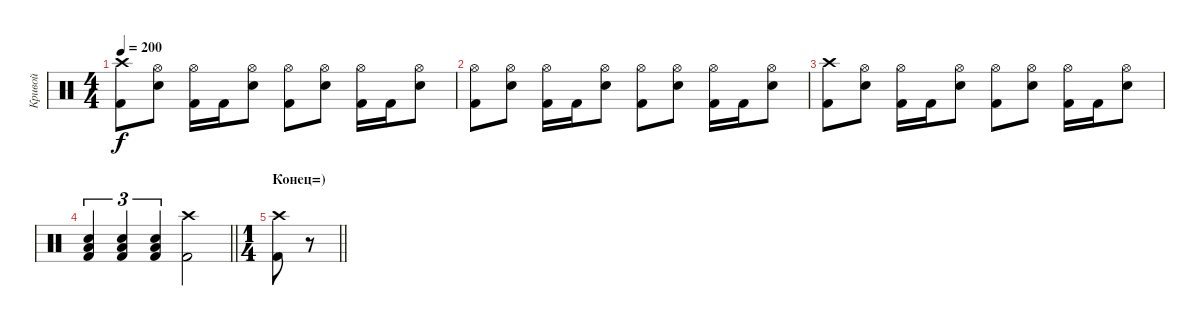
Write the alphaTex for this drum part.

\track ("Кривой" "Кривой") {instrument percussion}
\staff {score}
\articulation defaults
\ts (4 4)
\tempo 200
\clef neutral
\ks c
("Kick (hit) 2" "Crash high (hit)").8{dy f} ("Electric Snare (hit)" "Hi-Hat (open)").8 ("Kick (hit) 2" "Hi-Hat (open)").16 "Kick (hit) 2".16 ("Electric Snare (hit)" "Hi-Hat (open)").8 ("Kick (hit) 2" "Hi-Hat (open)").8 ("Electric Snare (hit)" "Hi-Hat (open)").8 ("Kick (hit) 2" "Hi-Hat (open)").16 "Kick (hit) 2".16 ("Electric Snare (hit)" "Hi-Hat (open)").8 |
("Kick (hit) 2" "Hi-Hat (open)").8 ("Electric Snare (hit)" "Hi-Hat (open)").8 ("Kick (hit) 2" "Hi-Hat (open)").16 "Kick (hit) 2".16 ("Electric Snare (hit)" "Hi-Hat (open)").8 ("Kick (hit) 2" "Hi-Hat (open)").8 ("Electric Snare (hit)" "Hi-Hat (open)").8 ("Kick (hit) 2" "Hi-Hat (open)").16 "Kick (hit) 2".16 ("Electric Snare (hit)" "Hi-Hat (open)").8 |
("Kick (hit) 2" "Crash high (hit)").8 ("Electric Snare (hit)" "Hi-Hat (open)").8 ("Kick (hit) 2" "Hi-Hat (open)").16 "Kick (hit) 2".16 ("Electric Snare (hit)" "Hi-Hat (open)").8 ("Kick (hit) 2" "Hi-Hat (open)").8 ("Electric Snare (hit)" "Hi-Hat (open)").8 ("Kick (hit) 2" "Hi-Hat (open)").16 "Kick (hit) 2".16 ("Electric Snare (hit)" "Hi-Hat (open)").8 |
\barLineRight lightlight
("Kick (hit) 2" "Electric Snare (hit)" "Low Tom (hit)").4{tu (3 2)} ("Kick (hit) 2" "Electric Snare (hit)" "Low Tom (hit)").4{tu (3 2)} ("Kick (hit) 2" "Electric Snare (hit)" "Low Tom (hit)").4{tu (3 2)} ("Kick (hit) 2" "Crash high (hit)").2 |
\ts (1 4)
\section ("" "Конец=)")
\barLineRight lightlight
("Kick (hit) 2" "Crash high (hit)").8 r.8
